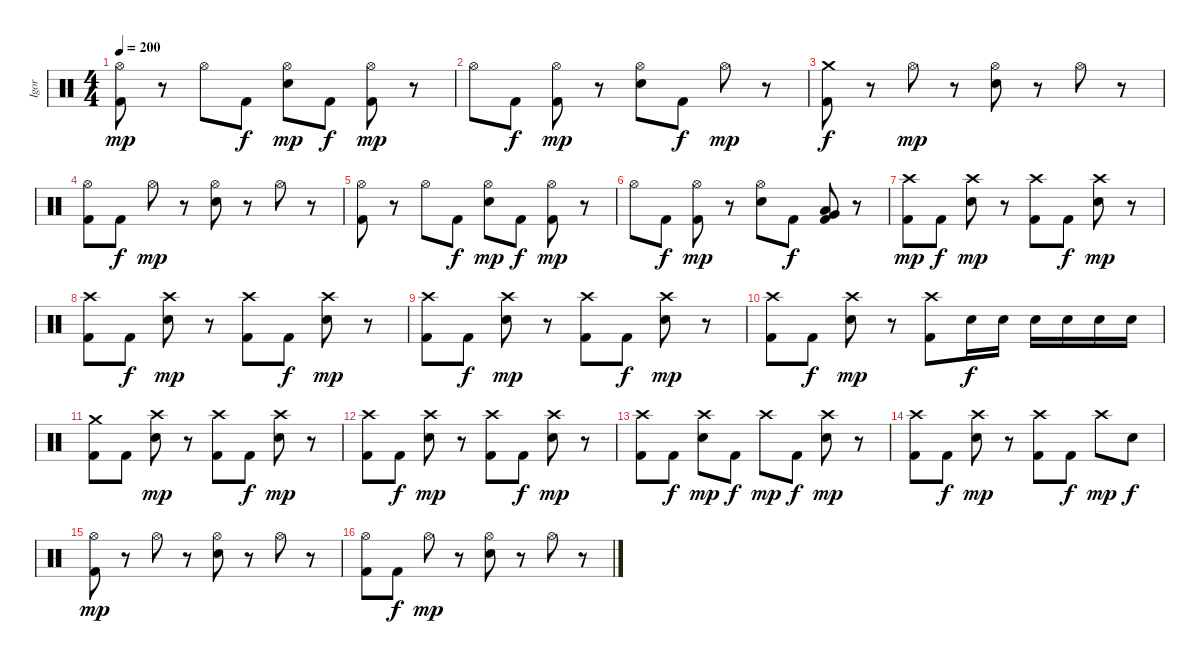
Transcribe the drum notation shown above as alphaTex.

\track ("Igor" "Igor") {instrument percussion}
\staff {score}
\articulation defaults
\ts (4 4)
\tempo 200
\clef neutral
\ks c
("Hi-Hat (open)" "Kick (hit) 2").8{dy mp} r.8 "Hi-Hat (open)".8 "Kick (hit) 2".8{dy f} ("Hi-Hat (open)" "Electric Snare (hit)").8{dy mp} "Kick (hit) 2".8{dy f} ("Hi-Hat (open)" "Kick (hit) 2").8{dy mp} r.8 |
"Hi-Hat (open)".8 "Kick (hit) 2".8{dy f} ("Hi-Hat (open)" "Kick (hit) 2").8{dy mp} r.8 ("Hi-Hat (open)" "Electric Snare (hit)").8 "Kick (hit) 2".8{dy f} "Hi-Hat (open)".8{dy mp} r.8 |
("Crash medium (hit)" "Kick (hit) 2").8{dy f} r.8 "Hi-Hat (open)".8{dy mp} r.8 ("Hi-Hat (open)" "Electric Snare (hit)").8 r.8 "Hi-Hat (open)".8 r.8 |
("Hi-Hat (open)" "Kick (hit) 2").8 "Kick (hit) 2".8{dy f} "Hi-Hat (open)".8{dy mp} r.8 ("Hi-Hat (open)" "Electric Snare (hit)").8 r.8 "Hi-Hat (open)".8 r.8 |
("Hi-Hat (open)" "Kick (hit) 2").8 r.8 "Hi-Hat (open)".8 "Kick (hit) 2".8{dy f} ("Hi-Hat (open)" "Electric Snare (hit)").8{dy mp} "Kick (hit) 2".8{dy f} ("Hi-Hat (open)" "Kick (hit) 2").8{dy mp} r.8 |
"Hi-Hat (open)".8 "Kick (hit) 2".8{dy f} ("Hi-Hat (open)" "Kick (hit) 2").8{dy mp} r.8 ("Hi-Hat (open)" "Electric Snare (hit)").8 "Kick (hit) 2".8{dy f} ("Very Low Tom (hit)" "Low Floor Tom (hit)" "Kick (hit) 2").8{bd 60} r.8 |
("Crash high (hit)" "Kick (hit) 2").8{dy mp} "Kick (hit) 2".8{dy f} ("Crash high (hit)" "Electric Snare (hit)").8{dy mp} r.8 ("Crash high (hit)" "Kick (hit) 2").8 "Kick (hit) 2".8{dy f} ("Crash high (hit)" "Electric Snare (hit)").8{dy mp} r.8 |
("Crash high (hit)" "Kick (hit) 2").8 "Kick (hit) 2".8{dy f} ("Crash high (hit)" "Electric Snare (hit)").8{dy mp} r.8 ("Crash high (hit)" "Kick (hit) 2").8 "Kick (hit) 2".8{dy f} ("Crash high (hit)" "Electric Snare (hit)").8{dy mp} r.8 |
("Crash high (hit)" "Kick (hit) 2").8 "Kick (hit) 2".8{dy f} ("Crash high (hit)" "Electric Snare (hit)").8{dy mp} r.8 ("Crash high (hit)" "Kick (hit) 2").8 "Kick (hit) 2".8{dy f} ("Crash high (hit)" "Electric Snare (hit)").8{dy mp} r.8 |
("Crash high (hit)" "Kick (hit) 2").8 "Kick (hit) 2".8{dy f} ("Crash high (hit)" "Electric Snare (hit)").8{dy mp} r.8 ("Crash high (hit)" "Kick (hit) 2").8 "Electric Snare (hit)".16{dy f} "Electric Snare (hit)".16 "Electric Snare (hit)".16 "Electric Snare (hit)".16 "Electric Snare (hit)".16 "Electric Snare (hit)".16 |
("Crash medium (hit)" "Kick (hit) 2").8 "Kick (hit) 2".8 ("Crash high (hit)" "Electric Snare (hit)").8{dy mp} r.8 ("Crash high (hit)" "Kick (hit) 2").8 "Kick (hit) 2".8{dy f} ("Crash high (hit)" "Electric Snare (hit)").8{dy mp} r.8 |
("Crash high (hit)" "Kick (hit) 2").8 "Kick (hit) 2".8{dy f} ("Crash high (hit)" "Electric Snare (hit)").8{dy mp} r.8 ("Crash high (hit)" "Kick (hit) 2").8 "Kick (hit) 2".8{dy f} ("Crash high (hit)" "Electric Snare (hit)").8{dy mp} r.8 |
("Crash high (hit)" "Kick (hit) 2").8 "Kick (hit) 2".8{dy f} ("Crash high (hit)" "Electric Snare (hit)").8{dy mp} "Kick (hit) 2".8{dy f} "Crash high (hit)".8{dy mp} "Kick (hit) 2".8{dy f} ("Crash high (hit)" "Electric Snare (hit)").8{dy mp} r.8 |
("Crash high (hit)" "Kick (hit) 2").8 "Kick (hit) 2".8{dy f} ("Crash high (hit)" "Electric Snare (hit)").8{dy mp} r.8 ("Crash high (hit)" "Kick (hit) 2").8 "Kick (hit) 2".8{dy f} "Crash high (hit)".8{dy mp} "Electric Snare (hit)".8{dy f} |
("Hi-Hat (open)" "Kick (hit) 2").8{dy mp} r.8 "Hi-Hat (open)".8 r.8 ("Hi-Hat (open)" "Electric Snare (hit)").8 r.8 "Hi-Hat (open)".8 r.8 |
("Hi-Hat (open)" "Kick (hit) 2").8 "Kick (hit) 2".8{dy f} "Hi-Hat (open)".8{dy mp} r.8 ("Hi-Hat (open)" "Electric Snare (hit)").8 r.8 "Hi-Hat (open)".8 r.8
